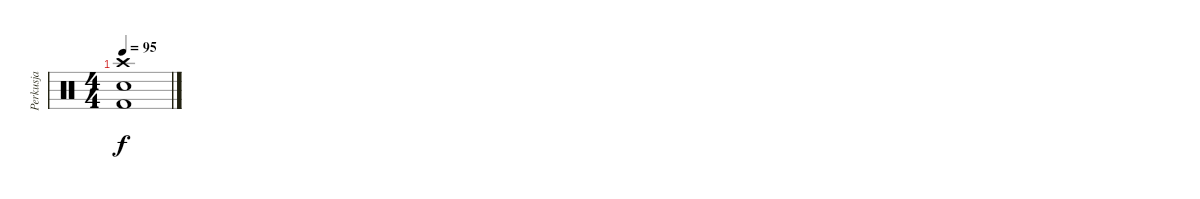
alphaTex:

\track ("Perkusja" "Perkusja") {instrument percussion}
\staff {score}
\articulation defaults
\ts (4 4)
\tempo 95
\clef neutral
\ks c
("Crash high (hit)" "Kick (hit) 2" "Electric Snare (hit)").1{dy f}
